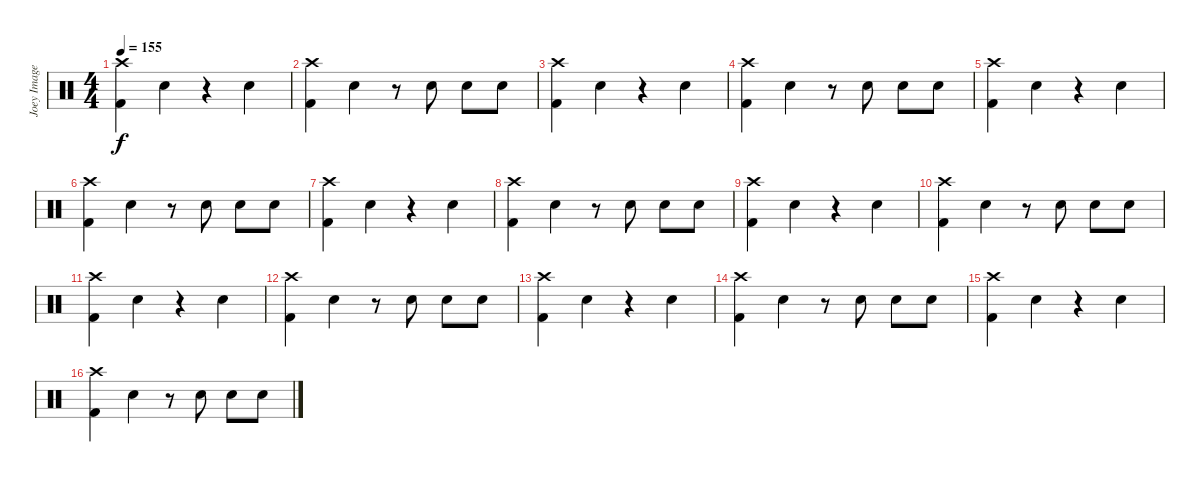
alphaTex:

\track ("Joey Image" "Joey Image") {instrument percussion}
\staff {score}
\articulation defaults
\ts (4 4)
\tempo 155
\clef neutral
\ks c
("Kick (hit) 2" "Crash high (hit)").4{dy f} "Snare (hit) 2".4 r.4 "Snare (hit) 2".4 |
("Kick (hit) 2" "Crash high (hit)").4 "Snare (hit) 2".4 r.8 "Snare (hit) 2".8 "Snare (hit) 2".8 "Snare (hit) 2".8 |
("Kick (hit) 2" "Crash high (hit)").4 "Snare (hit) 2".4 r.4 "Snare (hit) 2".4 |
("Kick (hit) 2" "Crash high (hit)").4 "Snare (hit) 2".4 r.8 "Snare (hit) 2".8 "Snare (hit) 2".8 "Snare (hit) 2".8 |
("Kick (hit) 2" "Crash high (hit)").4 "Snare (hit) 2".4 r.4 "Snare (hit) 2".4 |
("Kick (hit) 2" "Crash high (hit)").4 "Snare (hit) 2".4 r.8 "Snare (hit) 2".8 "Snare (hit) 2".8 "Snare (hit) 2".8 |
("Kick (hit) 2" "Crash high (hit)").4 "Snare (hit) 2".4 r.4 "Snare (hit) 2".4 |
("Kick (hit) 2" "Crash high (hit)").4 "Snare (hit) 2".4 r.8 "Snare (hit) 2".8 "Snare (hit) 2".8 "Snare (hit) 2".8 |
("Kick (hit) 2" "Crash high (hit)").4 "Snare (hit) 2".4 r.4 "Snare (hit) 2".4 |
("Kick (hit) 2" "Crash high (hit)").4 "Snare (hit) 2".4 r.8 "Snare (hit) 2".8 "Snare (hit) 2".8 "Snare (hit) 2".8 |
("Kick (hit) 2" "Crash high (hit)").4 "Snare (hit) 2".4 r.4 "Snare (hit) 2".4 |
("Kick (hit) 2" "Crash high (hit)").4 "Snare (hit) 2".4 r.8 "Snare (hit) 2".8 "Snare (hit) 2".8 "Snare (hit) 2".8 |
("Kick (hit) 2" "Crash high (hit)").4 "Snare (hit) 2".4 r.4 "Snare (hit) 2".4 |
("Kick (hit) 2" "Crash high (hit)").4 "Snare (hit) 2".4 r.8 "Snare (hit) 2".8 "Snare (hit) 2".8 "Snare (hit) 2".8 |
("Kick (hit) 2" "Crash high (hit)").4 "Snare (hit) 2".4 r.4 "Snare (hit) 2".4 |
("Kick (hit) 2" "Crash high (hit)").4 "Snare (hit) 2".4 r.8 "Snare (hit) 2".8 "Snare (hit) 2".8 "Snare (hit) 2".8
